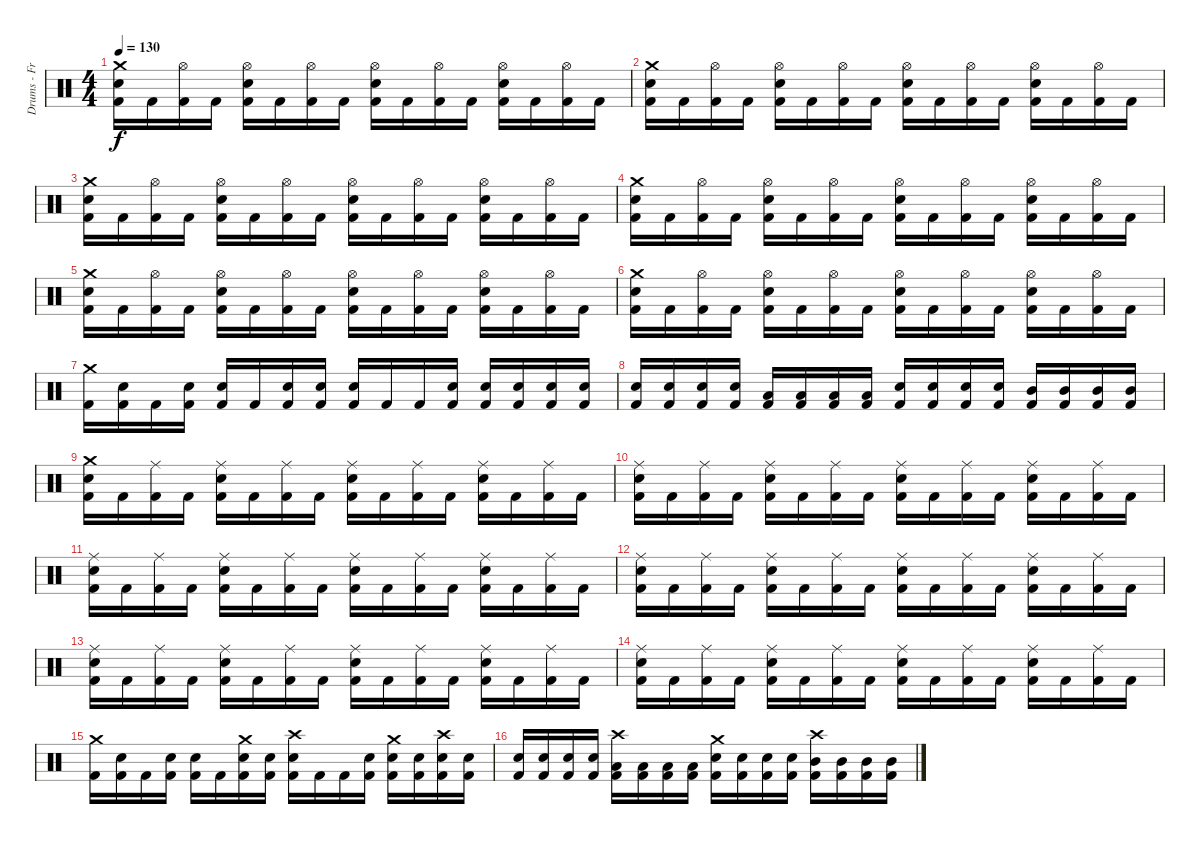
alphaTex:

\track ("Drums - Fredrik Andersson" "Drums - Fr") {instrument percussion}
\staff {score}
\articulation defaults
\ts (4 4)
\tempo 130
\clef neutral
\ks c
("Kick (hit) 2" "Snare (hit) 2" "Crash medium (hit)").16{dy f} "Kick (hit) 2".16 ("Kick (hit) 2" "Hi-Hat (open)").16 "Kick (hit) 2".16 ("Kick (hit) 2" "Snare (hit) 2" "Hi-Hat (open)").16 "Kick (hit) 2".16 ("Kick (hit) 2" "Hi-Hat (open)").16 "Kick (hit) 2".16 ("Kick (hit) 2" "Snare (hit) 2" "Hi-Hat (open)").16 "Kick (hit) 2".16 ("Kick (hit) 2" "Hi-Hat (open)").16 "Kick (hit) 2".16 ("Kick (hit) 2" "Snare (hit) 2" "Hi-Hat (open)").16 "Kick (hit) 2".16 ("Kick (hit) 2" "Hi-Hat (open)").16 "Kick (hit) 2".16 |
("Kick (hit) 2" "Snare (hit) 2" "Crash medium (hit)").16 "Kick (hit) 2".16 ("Kick (hit) 2" "Hi-Hat (open)").16 "Kick (hit) 2".16 ("Kick (hit) 2" "Snare (hit) 2" "Hi-Hat (open)").16 "Kick (hit) 2".16 ("Kick (hit) 2" "Hi-Hat (open)").16 "Kick (hit) 2".16 ("Kick (hit) 2" "Snare (hit) 2" "Hi-Hat (open)").16 "Kick (hit) 2".16 ("Kick (hit) 2" "Hi-Hat (open)").16 "Kick (hit) 2".16 ("Kick (hit) 2" "Snare (hit) 2" "Hi-Hat (open)").16 "Kick (hit) 2".16 ("Kick (hit) 2" "Hi-Hat (open)").16 "Kick (hit) 2".16 |
("Kick (hit) 2" "Snare (hit) 2" "Crash medium (hit)").16 "Kick (hit) 2".16 ("Kick (hit) 2" "Hi-Hat (open)").16 "Kick (hit) 2".16 ("Kick (hit) 2" "Snare (hit) 2" "Hi-Hat (open)").16 "Kick (hit) 2".16 ("Kick (hit) 2" "Hi-Hat (open)").16 "Kick (hit) 2".16 ("Kick (hit) 2" "Snare (hit) 2" "Hi-Hat (open)").16 "Kick (hit) 2".16 ("Kick (hit) 2" "Hi-Hat (open)").16 "Kick (hit) 2".16 ("Kick (hit) 2" "Snare (hit) 2" "Hi-Hat (open)").16 "Kick (hit) 2".16 ("Kick (hit) 2" "Hi-Hat (open)").16 "Kick (hit) 2".16 |
("Kick (hit) 2" "Snare (hit) 2" "Crash medium (hit)").16 "Kick (hit) 2".16 ("Kick (hit) 2" "Hi-Hat (open)").16 "Kick (hit) 2".16 ("Kick (hit) 2" "Snare (hit) 2" "Hi-Hat (open)").16 "Kick (hit) 2".16 ("Kick (hit) 2" "Hi-Hat (open)").16 "Kick (hit) 2".16 ("Kick (hit) 2" "Snare (hit) 2" "Hi-Hat (open)").16 "Kick (hit) 2".16 ("Kick (hit) 2" "Hi-Hat (open)").16 "Kick (hit) 2".16 ("Kick (hit) 2" "Snare (hit) 2" "Hi-Hat (open)").16 "Kick (hit) 2".16 ("Kick (hit) 2" "Hi-Hat (open)").16 "Kick (hit) 2".16 |
("Kick (hit) 2" "Snare (hit) 2" "Crash medium (hit)").16 "Kick (hit) 2".16 ("Kick (hit) 2" "Hi-Hat (open)").16 "Kick (hit) 2".16 ("Kick (hit) 2" "Snare (hit) 2" "Hi-Hat (open)").16 "Kick (hit) 2".16 ("Kick (hit) 2" "Hi-Hat (open)").16 "Kick (hit) 2".16 ("Kick (hit) 2" "Snare (hit) 2" "Hi-Hat (open)").16 "Kick (hit) 2".16 ("Kick (hit) 2" "Hi-Hat (open)").16 "Kick (hit) 2".16 ("Kick (hit) 2" "Snare (hit) 2" "Hi-Hat (open)").16 "Kick (hit) 2".16 ("Kick (hit) 2" "Hi-Hat (open)").16 "Kick (hit) 2".16 |
("Kick (hit) 2" "Snare (hit) 2" "Crash medium (hit)").16 "Kick (hit) 2".16 ("Kick (hit) 2" "Hi-Hat (open)").16 "Kick (hit) 2".16 ("Kick (hit) 2" "Snare (hit) 2" "Hi-Hat (open)").16 "Kick (hit) 2".16 ("Kick (hit) 2" "Hi-Hat (open)").16 "Kick (hit) 2".16 ("Kick (hit) 2" "Snare (hit) 2" "Hi-Hat (open)").16 "Kick (hit) 2".16 ("Kick (hit) 2" "Hi-Hat (open)").16 "Kick (hit) 2".16 ("Kick (hit) 2" "Snare (hit) 2" "Hi-Hat (open)").16 "Kick (hit) 2".16 ("Kick (hit) 2" "Hi-Hat (open)").16 "Kick (hit) 2".16 |
("Kick (hit) 2" "Crash medium (hit)").16 ("Kick (hit) 2" "Snare (hit) 2").16 "Kick (hit) 2".16 ("Kick (hit) 2" "Snare (hit) 2").16 ("Kick (hit) 2" "Snare (hit) 2").16 "Kick (hit) 2".16 ("Kick (hit) 2" "Snare (hit) 2").16 ("Kick (hit) 2" "Snare (hit) 2").16 ("Kick (hit) 2" "Snare (hit) 2").16 "Kick (hit) 2".16 "Kick (hit) 2".16 ("Kick (hit) 2" "Snare (hit) 2").16 ("Kick (hit) 2" "Snare (hit) 2").16 ("Kick (hit) 2" "Snare (hit) 2").16 ("Kick (hit) 2" "Snare (hit) 2").16 ("Kick (hit) 2" "Snare (hit) 2").16 |
("Kick (hit) 2" "Snare (hit) 2").16 ("Kick (hit) 2" "Snare (hit) 2").16 ("Kick (hit) 2" "Snare (hit) 2").16 ("Kick (hit) 2" "Snare (hit) 2").16 ("Kick (hit) 2" "Low Tom (hit)").16 ("Kick (hit) 2" "Low Tom (hit)").16 ("Kick (hit) 2" "Low Tom (hit)").16 ("Kick (hit) 2" "Low Tom (hit)").16 ("Kick (hit) 2" "Snare (hit) 2").16 ("Kick (hit) 2" "Snare (hit) 2").16 ("Kick (hit) 2" "Snare (hit) 2").16 ("Kick (hit) 2" "Snare (hit) 2").16 ("Kick (hit) 2" "Mid Tom (hit)").16 ("Kick (hit) 2" "Mid Tom (hit)").16 ("Kick (hit) 2" "Mid Tom (hit)").16 ("Kick (hit) 2" "Mid Tom (hit)").16 |
("Kick (hit) 2" "Snare (hit) 2" "Crash medium (hit)").16 "Kick (hit) 2".16 ("Kick (hit) 2" "Ride (middle)").16 "Kick (hit) 2".16 ("Kick (hit) 2" "Snare (hit) 2" "Ride (middle)").16 "Kick (hit) 2".16 ("Kick (hit) 2" "Ride (middle)").16 "Kick (hit) 2".16 ("Kick (hit) 2" "Snare (hit) 2" "Ride (middle)").16 "Kick (hit) 2".16 ("Kick (hit) 2" "Ride (middle)").16 "Kick (hit) 2".16 ("Kick (hit) 2" "Snare (hit) 2" "Ride (middle)").16 "Kick (hit) 2".16 ("Kick (hit) 2" "Ride (middle)").16 "Kick (hit) 2".16 |
("Kick (hit) 2" "Snare (hit) 2" "Ride (middle)").16 "Kick (hit) 2".16 ("Kick (hit) 2" "Ride (middle)").16 "Kick (hit) 2".16 ("Kick (hit) 2" "Snare (hit) 2" "Ride (middle)").16 "Kick (hit) 2".16 ("Kick (hit) 2" "Ride (middle)").16 "Kick (hit) 2".16 ("Kick (hit) 2" "Snare (hit) 2" "Ride (middle)").16 "Kick (hit) 2".16 ("Kick (hit) 2" "Ride (middle)").16 "Kick (hit) 2".16 ("Kick (hit) 2" "Snare (hit) 2" "Ride (middle)").16 "Kick (hit) 2".16 ("Kick (hit) 2" "Ride (middle)").16 "Kick (hit) 2".16 |
("Kick (hit) 2" "Snare (hit) 2" "Ride (middle)").16 "Kick (hit) 2".16 ("Kick (hit) 2" "Ride (middle)").16 "Kick (hit) 2".16 ("Kick (hit) 2" "Snare (hit) 2" "Ride (middle)").16 "Kick (hit) 2".16 ("Kick (hit) 2" "Ride (middle)").16 "Kick (hit) 2".16 ("Kick (hit) 2" "Snare (hit) 2" "Ride (middle)").16 "Kick (hit) 2".16 ("Kick (hit) 2" "Ride (middle)").16 "Kick (hit) 2".16 ("Kick (hit) 2" "Snare (hit) 2" "Ride (middle)").16 "Kick (hit) 2".16 ("Kick (hit) 2" "Ride (middle)").16 "Kick (hit) 2".16 |
("Kick (hit) 2" "Snare (hit) 2" "Ride (middle)").16 "Kick (hit) 2".16 ("Kick (hit) 2" "Ride (middle)").16 "Kick (hit) 2".16 ("Kick (hit) 2" "Snare (hit) 2" "Ride (middle)").16 "Kick (hit) 2".16 ("Kick (hit) 2" "Ride (middle)").16 "Kick (hit) 2".16 ("Kick (hit) 2" "Snare (hit) 2" "Ride (middle)").16 "Kick (hit) 2".16 ("Kick (hit) 2" "Ride (middle)").16 "Kick (hit) 2".16 ("Kick (hit) 2" "Snare (hit) 2" "Ride (middle)").16 "Kick (hit) 2".16 ("Kick (hit) 2" "Ride (middle)").16 "Kick (hit) 2".16 |
("Kick (hit) 2" "Snare (hit) 2" "Ride (middle)").16 "Kick (hit) 2".16 ("Kick (hit) 2" "Ride (middle)").16 "Kick (hit) 2".16 ("Kick (hit) 2" "Snare (hit) 2" "Ride (middle)").16 "Kick (hit) 2".16 ("Kick (hit) 2" "Ride (middle)").16 "Kick (hit) 2".16 ("Kick (hit) 2" "Snare (hit) 2" "Ride (middle)").16 "Kick (hit) 2".16 ("Kick (hit) 2" "Ride (middle)").16 "Kick (hit) 2".16 ("Kick (hit) 2" "Snare (hit) 2" "Ride (middle)").16 "Kick (hit) 2".16 ("Kick (hit) 2" "Ride (middle)").16 "Kick (hit) 2".16 |
("Kick (hit) 2" "Snare (hit) 2" "Ride (middle)").16 "Kick (hit) 2".16 ("Kick (hit) 2" "Ride (middle)").16 "Kick (hit) 2".16 ("Kick (hit) 2" "Snare (hit) 2" "Ride (middle)").16 "Kick (hit) 2".16 ("Kick (hit) 2" "Ride (middle)").16 "Kick (hit) 2".16 ("Kick (hit) 2" "Snare (hit) 2" "Ride (middle)").16 "Kick (hit) 2".16 ("Kick (hit) 2" "Ride (middle)").16 "Kick (hit) 2".16 ("Kick (hit) 2" "Snare (hit) 2" "Ride (middle)").16 "Kick (hit) 2".16 ("Kick (hit) 2" "Ride (middle)").16 "Kick (hit) 2".16 |
("Kick (hit) 2" "Crash medium (hit)").16 ("Kick (hit) 2" "Snare (hit) 2").16 "Kick (hit) 2".16 ("Kick (hit) 2" "Snare (hit) 2").16 ("Kick (hit) 2" "Snare (hit) 2").16 "Kick (hit) 2".16 ("Kick (hit) 2" "Snare (hit) 2" "Crash medium (hit)").16 ("Kick (hit) 2" "Snare (hit) 2").16 ("Kick (hit) 2" "Snare (hit) 2" "Crash high (hit)").16 "Kick (hit) 2".16 "Kick (hit) 2".16 ("Kick (hit) 2" "Snare (hit) 2").16 ("Kick (hit) 2" "Snare (hit) 2" "Crash medium (hit)").16 ("Kick (hit) 2" "Snare (hit) 2").16 ("Kick (hit) 2" "Snare (hit) 2" "Crash high (hit)").16 ("Kick (hit) 2" "Snare (hit) 2").16 |
("Kick (hit) 2" "Snare (hit) 2").16 ("Kick (hit) 2" "Snare (hit) 2").16 ("Kick (hit) 2" "Snare (hit) 2").16 ("Kick (hit) 2" "Snare (hit) 2").16 ("Kick (hit) 2" "Low Tom (hit)" "Crash high (hit)").16 ("Kick (hit) 2" "Low Tom (hit)").16 ("Kick (hit) 2" "Low Tom (hit)").16 ("Kick (hit) 2" "Low Tom (hit)").16 ("Kick (hit) 2" "Snare (hit) 2" "Crash medium (hit)").16 ("Kick (hit) 2" "Snare (hit) 2").16 ("Kick (hit) 2" "Snare (hit) 2").16 ("Kick (hit) 2" "Snare (hit) 2").16 ("Kick (hit) 2" "Mid Tom (hit)" "Crash high (hit)").16 ("Kick (hit) 2" "Mid Tom (hit)").16 ("Kick (hit) 2" "Mid Tom (hit)").16 ("Kick (hit) 2" "Mid Tom (hit)").16
